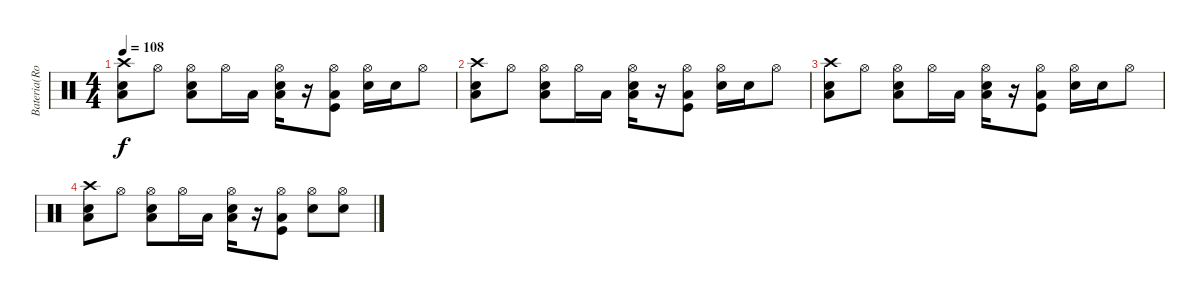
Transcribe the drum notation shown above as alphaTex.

\track ("Bateria(Rob)" "Bateria(Ro") {instrument percussion}
\staff {score}
\articulation defaults
\ts (4 4)
\tempo 108
\clef neutral
\ks c
("Crash high (hit)" "Snare (hit) 2" "Low Tom (hit)").8{dy f} "Hi-Hat (open)".8 ("Hi-Hat (open)" "Snare (hit) 2" "Low Tom (hit)").8 "Hi-Hat (open)".16 "Low Tom (hit)".16 ("Hi-Hat (open)" "Snare (hit) 2" "Low Tom (hit)").16 r.16 ("Hi-Hat (open)" "Kick (hit)" "Low Tom (hit)").8 ("Hi-Hat (open)" "Snare (hit) 2").16 "Snare (hit) 2".16 "Hi-Hat (open)".8 |
("Crash high (hit)" "Snare (hit) 2" "Low Tom (hit)").8 "Hi-Hat (open)".8 ("Hi-Hat (open)" "Snare (hit) 2" "Low Tom (hit)").8 "Hi-Hat (open)".16 "Low Tom (hit)".16 ("Hi-Hat (open)" "Snare (hit) 2" "Low Tom (hit)").16 r.16 ("Hi-Hat (open)" "Kick (hit)" "Low Tom (hit)").8 ("Hi-Hat (open)" "Snare (hit) 2").16 "Snare (hit) 2".16 "Hi-Hat (open)".8 |
("Crash high (hit)" "Snare (hit) 2" "Low Tom (hit)").8 "Hi-Hat (open)".8 ("Hi-Hat (open)" "Snare (hit) 2" "Low Tom (hit)").8 "Hi-Hat (open)".16 "Low Tom (hit)".16 ("Hi-Hat (open)" "Snare (hit) 2" "Low Tom (hit)").16 r.16 ("Hi-Hat (open)" "Kick (hit)" "Low Tom (hit)").8 ("Hi-Hat (open)" "Snare (hit) 2").16 "Snare (hit) 2".16 "Hi-Hat (open)".8 |
("Crash high (hit)" "Snare (hit) 2" "Low Tom (hit)").8 "Hi-Hat (open)".8 ("Hi-Hat (open)" "Snare (hit) 2" "Low Tom (hit)").8 "Hi-Hat (open)".16 "Low Tom (hit)".16 ("Hi-Hat (open)" "Snare (hit) 2" "Low Tom (hit)").16 r.16 ("Hi-Hat (open)" "Kick (hit)" "Low Tom (hit)").8 ("Hi-Hat (open)" "Snare (hit) 2").8 ("Hi-Hat (open)" "Snare (hit) 2").8
